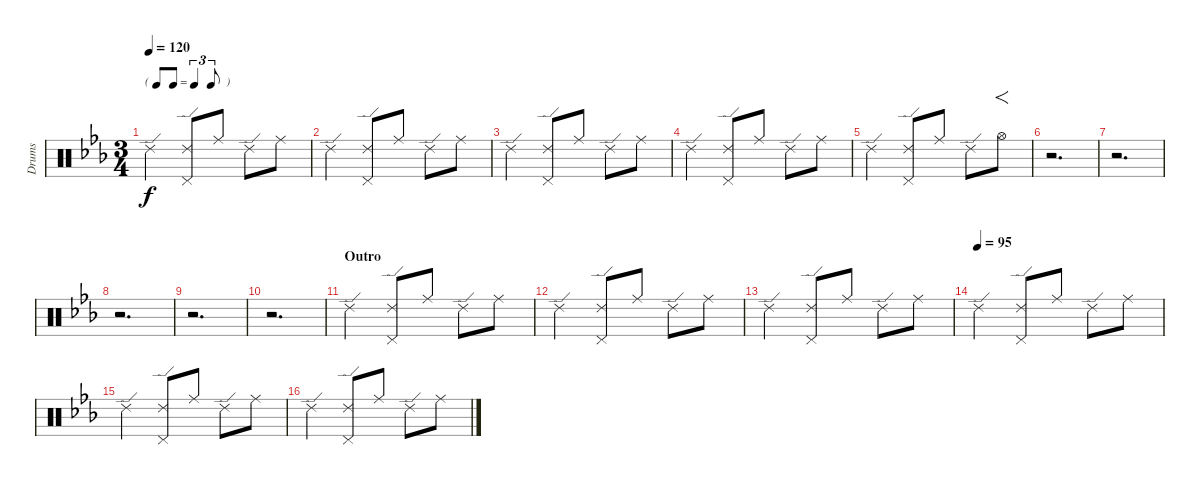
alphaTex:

\track ("Drums" "Drums") {instrument percussion}
\staff {score}
\articulation defaults
\ts (3 4)
\tf triplet8th
\tempo 120
\clef neutral
\ks cminor "Ride (edge) 2".4{dy f}
("Ride (edge) 2" "Pedal Hi-Hat (hit)").8 "Ride (middle)".8 "Ride (edge) 2".8 "Ride (middle)".8 |
"Ride (edge) 2".4 ("Ride (edge) 2" "Pedal Hi-Hat (hit)").8 "Ride (middle)".8 "Ride (edge) 2".8 "Ride (middle)".8 |
"Ride (edge) 2".4 ("Ride (edge) 2" "Pedal Hi-Hat (hit)").8 "Ride (middle)".8 "Ride (edge) 2".8 "Ride (middle)".8 |
"Ride (edge) 2".4 ("Ride (edge) 2" "Pedal Hi-Hat (hit)").8 "Ride (middle)".8 "Ride (edge) 2".8 "Ride (middle)".8 |
"Ride (edge) 2".4 ("Ride (edge) 2" "Pedal Hi-Hat (hit)").8 "Ride (middle)".8 "Ride (edge) 2".8 "Hi-Hat (open)".8{f} |
r.2{d} |
r.2{d} |
r.2{d} |
r.2{d} |
r.2{d} |
\section ("" "Outro")
"Ride (edge) 2".4 ("Ride (edge) 2" "Pedal Hi-Hat (hit)").8 "Ride (middle)".8 "Ride (edge) 2".8 "Ride (middle)".8 |
"Ride (edge) 2".4 ("Ride (edge) 2" "Pedal Hi-Hat (hit)").8 "Ride (middle)".8 "Ride (edge) 2".8 "Ride (middle)".8 |
"Ride (edge) 2".4 ("Ride (edge) 2" "Pedal Hi-Hat (hit)").8 "Ride (middle)".8 "Ride (edge) 2".8 "Ride (middle)".8 |
\tempo (95)
"Ride (edge) 2".4 ("Ride (edge) 2" "Pedal Hi-Hat (hit)").8 "Ride (middle)".8 "Ride (edge) 2".8 "Ride (middle)".8 |
"Ride (edge) 2".4 ("Ride (edge) 2" "Pedal Hi-Hat (hit)").8 "Ride (middle)".8 "Ride (edge) 2".8 "Ride (middle)".8 |
"Ride (edge) 2".4 ("Ride (edge) 2" "Pedal Hi-Hat (hit)").8 "Ride (middle)".8 "Ride (edge) 2".8 "Ride (middle)".8
